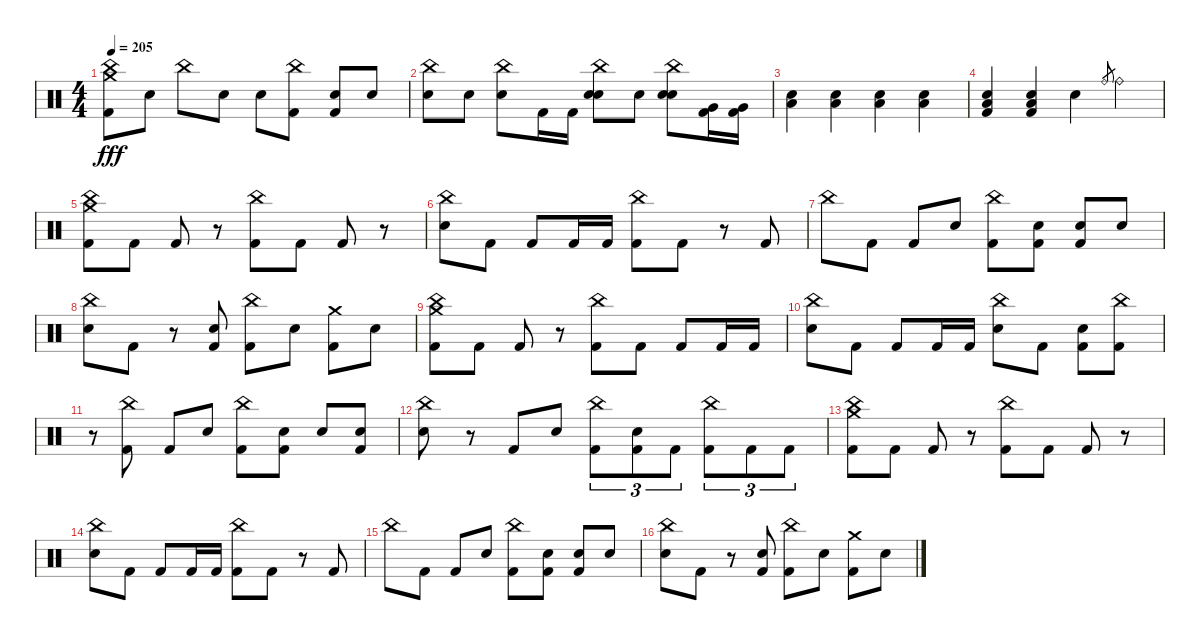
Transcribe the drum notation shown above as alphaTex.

\track "" {instrument percussion}
\staff {score}
\articulation defaults
\ts (4 4)
\tempo 205
\clef neutral
\ks c
("Crash medium (hit)" "China (hit)" "Kick (hit) 2").8{dy fff} "Snare (hit)".8 "China (hit)".8 "Electric Snare (hit)".8 "Snare (hit)".8 ("China (hit)" "Kick (hit) 2").8 ("Snare (hit)" "Kick (hit) 2").8 "Snare (hit)".8 |
("China (hit)" "Electric Snare (hit)").8 "Snare (hit)".8 ("China (hit)" "Snare (hit)").8 "Kick (hit) 2".16 "Kick (hit) 2".16 ("China (hit)" "Electric Snare (hit)" "Snare (hit)").8 "Snare (hit)".8 ("China (hit)" "Electric Snare (hit)" "Snare (hit)").8 ("Very Low Tom (hit)" "Kick (hit) 2").16 ("Very Low Tom (hit)" "Kick (hit) 2").16 |
("Low Tom (hit)" "Electric Snare (hit)").4 ("Low Tom (hit)" "Electric Snare (hit)").4 ("Low Tom (hit)" "Electric Snare (hit)").4 ("Low Tom (hit)" "Electric Snare (hit)").4 |
("Low Tom (hit)" "Electric Snare (hit)" "Kick (hit) 2").4 ("Low Tom (hit)" "Electric Snare (hit)" "Kick (hit) 2").4 "Snare (hit)".4 "Ride (bell)".8{gr} "Ride (bell)".4 |
("China (hit)" "Crash medium (hit)" "Kick (hit) 2").8 "Kick (hit) 2".8 "Kick (hit) 2".8 r.8 ("China (hit)" "Kick (hit) 2").8 "Kick (hit) 2".8 "Kick (hit) 2".8 r.8 |
("China (hit)" "Electric Snare (hit)").8 "Kick (hit) 2".8 "Kick (hit) 2".8 "Kick (hit) 2".16 "Kick (hit) 2".16 ("China (hit)" "Kick (hit) 2").8 "Kick (hit) 2".8 r.8 "Kick (hit) 2".8 |
"China (hit)".8 "Kick (hit) 2".8 "Kick (hit) 2".8 "Snare (hit)".8 ("China (hit)" "Kick (hit) 2").8 ("Snare (hit)" "Kick (hit) 2").8 ("Snare (hit)" "Kick (hit) 2").8 "Snare (hit)".8 |
("Electric Snare (hit)" "China (hit)").8 "Kick (hit) 2".8 r.8 ("Snare (hit)" "Kick (hit) 2").8 ("China (hit)" "Kick (hit) 2").8 "Snare (hit)".8 ("Crash medium (hit)" "Kick (hit) 2").8 "Snare (hit)".8 |
("China (hit)" "Crash medium (hit)" "Kick (hit) 2").8 "Kick (hit) 2".8 "Kick (hit) 2".8 r.8 ("China (hit)" "Kick (hit) 2").8 "Kick (hit) 2".8 "Kick (hit) 2".8 "Kick (hit) 2".16 "Kick (hit) 2".16 |
("China (hit)" "Electric Snare (hit)").8 "Kick (hit) 2".8 "Kick (hit) 2".8 "Kick (hit) 2".16 "Kick (hit) 2".16 ("Electric Snare (hit)" "China (hit)").8 "Kick (hit) 2".8 ("Electric Snare (hit)" "Kick (hit) 2").8 ("China (hit)" "Kick (hit) 2").8 |
r.8 ("China (hit)" "Kick (hit) 2").8 "Kick (hit) 2".8 "Snare (hit)".8 ("China (hit)" "Kick (hit) 2").8 ("Snare (hit)" "Kick (hit) 2").8 "Snare (hit)".8 ("Snare (hit)" "Kick (hit) 2").8 |
("Electric Snare (hit)" "China (hit)").8 r.8 "Kick (hit) 2".8 "Snare (hit)".8 ("China (hit)" "Kick (hit) 2").8{tu (3 2)} ("Snare (hit)" "Kick (hit) 2").8{tu (3 2)} "Kick (hit) 2".8{tu (3 2)} ("China (hit)" "Kick (hit) 2").8{tu (3 2)} "Kick (hit) 2".8{tu (3 2)} "Kick (hit) 2".8{tu (3 2)} |
("China (hit)" "Crash medium (hit)" "Kick (hit) 2").8 "Kick (hit) 2".8 "Kick (hit) 2".8 r.8 ("China (hit)" "Kick (hit) 2").8 "Kick (hit) 2".8 "Kick (hit) 2".8 r.8 |
("China (hit)" "Electric Snare (hit)").8 "Kick (hit) 2".8 "Kick (hit) 2".8 "Kick (hit) 2".16 "Kick (hit) 2".16 ("China (hit)" "Kick (hit) 2").8 "Kick (hit) 2".8 r.8 "Kick (hit) 2".8 |
"China (hit)".8 "Kick (hit) 2".8 "Kick (hit) 2".8 "Snare (hit)".8 ("China (hit)" "Kick (hit) 2").8 ("Snare (hit)" "Kick (hit) 2").8 ("Snare (hit)" "Kick (hit) 2").8 "Snare (hit)".8 |
("Electric Snare (hit)" "China (hit)").8 "Kick (hit) 2".8 r.8 ("Snare (hit)" "Kick (hit) 2").8 ("China (hit)" "Kick (hit) 2").8 "Snare (hit)".8 ("Crash medium (hit)" "Kick (hit) 2").8 "Snare (hit)".8
